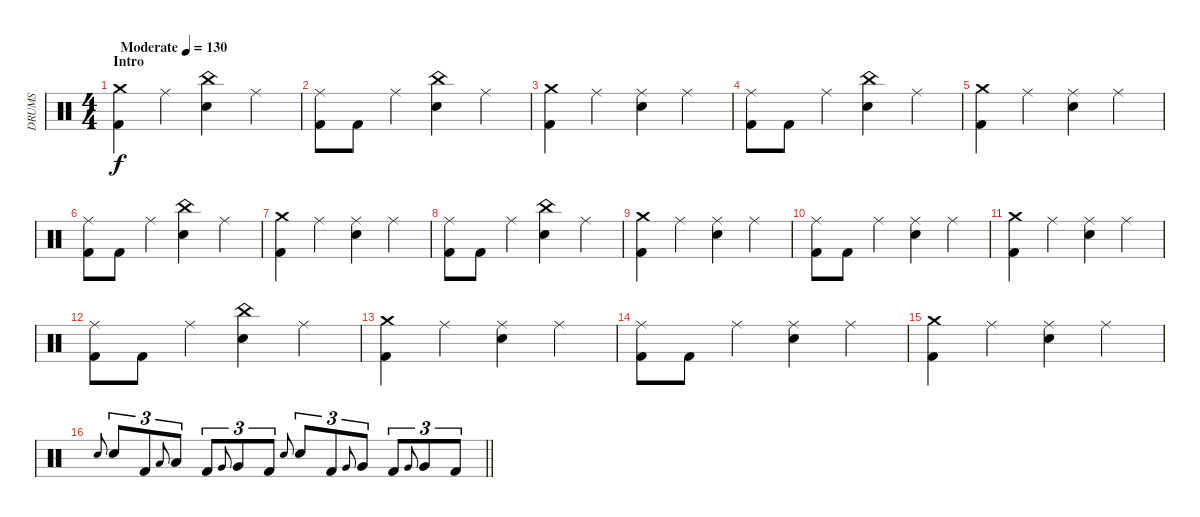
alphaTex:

\track ("DRUMS" "DRUMS") {instrument percussion}
\staff {score}
\articulation defaults
\ts (4 4)
\section ("" "Intro")
\tempo (130 "Moderate")
\clef neutral
\ks c
("Crash medium (hit)" "Kick (hit) 2").4{dy f} "Ride (middle)".4 ("China (hit)" "Snare (hit) 2").4 "Ride (middle)".4 |
("Ride (middle)" "Kick (hit) 2").8 "Kick (hit) 2".8 "Ride (middle)".4 ("China (hit)" "Snare (hit) 2").4 "Ride (middle)".4 |
("Crash medium (hit)" "Kick (hit) 2").4 "Ride (middle)".4 ("Ride (middle)" "Snare (hit) 2").4 "Ride (middle)".4 |
("Ride (middle)" "Kick (hit) 2").8 "Kick (hit) 2".8 "Ride (middle)".4 ("China (hit)" "Snare (hit) 2").4 "Ride (middle)".4 |
("Crash medium (hit)" "Kick (hit) 2").4 "Ride (middle)".4 ("Ride (middle)" "Snare (hit) 2").4 "Ride (middle)".4 |
("Ride (middle)" "Kick (hit) 2").8 "Kick (hit) 2".8 "Ride (middle)".4 ("China (hit)" "Snare (hit) 2").4 "Ride (middle)".4 |
("Crash medium (hit)" "Kick (hit) 2").4 "Ride (middle)".4 ("Ride (middle)" "Snare (hit) 2").4 "Ride (middle)".4 |
("Ride (middle)" "Kick (hit) 2").8 "Kick (hit) 2".8 "Ride (middle)".4 ("China (hit)" "Snare (hit) 2").4 "Ride (middle)".4 |
("Crash medium (hit)" "Kick (hit) 2").4 "Ride (middle)".4 ("Ride (middle)" "Snare (hit) 2").4 "Ride (middle)".4 |
("Ride (middle)" "Kick (hit) 2").8 "Kick (hit) 2".8 "Ride (middle)".4 ("Ride (middle)" "Snare (hit) 2").4 "Ride (middle)".4 |
("Crash medium (hit)" "Kick (hit) 2").4 "Ride (middle)".4 ("Ride (middle)" "Snare (hit) 2").4 "Ride (middle)".4 |
("Ride (middle)" "Kick (hit) 2").8 "Kick (hit) 2".8 "Ride (middle)".4 ("China (hit)" "Snare (hit) 2").4 "Ride (middle)".4 |
("Crash medium (hit)" "Kick (hit) 2").4 "Ride (middle)".4 ("Ride (middle)" "Snare (hit) 2").4 "Ride (middle)".4 |
("Ride (middle)" "Kick (hit) 2").8 "Kick (hit) 2".8 "Ride (middle)".4 ("Ride (middle)" "Snare (hit) 2").4 "Ride (middle)".4 |
("Crash medium (hit)" "Kick (hit) 2").4 "Ride (middle)".4 ("Ride (middle)" "Snare (hit) 2").4 "Ride (middle)".4 |
\barLineRight lightlight "Snare (hit) 2".8{gr onbeat} "Snare (hit) 2".8{tu (3 2)} "Kick (hit) 2".8{tu (3 2)} "Low Tom (hit)".8{gr onbeat} "Low Tom (hit)".8{tu (3 2)} "Kick (hit) 2".8{tu (3 2)} "Very Low Tom (hit)".8{gr onbeat} "Very Low Tom (hit)".8{tu (3 2)} "Kick (hit) 2".8{tu (3 2)} "Snare (hit) 2".8{gr onbeat} "Snare (hit) 2".8{tu (3 2)} "Kick (hit) 2".8{tu (3 2)} "Very Low Tom (hit)".8{gr onbeat} "Very Low Tom (hit)".8{tu (3 2)} "Kick (hit) 2".8{tu (3 2)} "Very Low Tom (hit)".8{gr onbeat} "Very Low Tom (hit)".8{tu (3 2)} "Kick (hit) 2".8{tu (3 2)}
